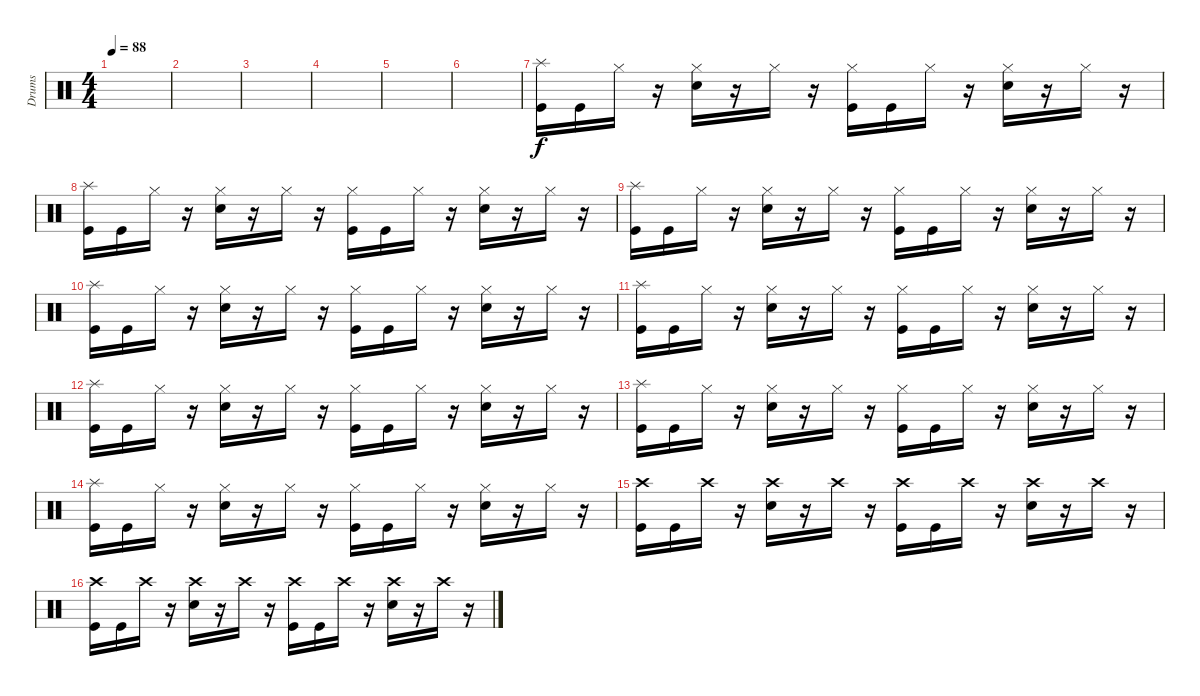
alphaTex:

\track ("Drums" "Drums") {instrument percussion}
\staff {score}
\articulation defaults
\ts (4 4)
\tempo 88
\clef neutral
\ks c
|
|
|
|
|
|
("Splash (hit)" "Kick (hit)").16 "Kick (hit)".16 "Hi-Hat (closed)".16 r.16 ("Hi-Hat (closed)" "Electric Snare (hit)").16 r.16 "Hi-Hat (closed)".16 r.16 ("Hi-Hat (closed)" "Kick (hit)").16 "Kick (hit)".16 "Hi-Hat (closed)".16 r.16 ("Hi-Hat (closed)" "Electric Snare (hit)").16 r.16 "Hi-Hat (closed)".16 r.16 |
("Splash (hit)" "Kick (hit)").16 "Kick (hit)".16 "Hi-Hat (closed)".16 r.16 ("Hi-Hat (closed)" "Electric Snare (hit)").16 r.16 "Hi-Hat (closed)".16 r.16 ("Hi-Hat (closed)" "Kick (hit)").16 "Kick (hit)".16 "Hi-Hat (closed)".16 r.16 ("Hi-Hat (closed)" "Electric Snare (hit)").16 r.16 "Hi-Hat (closed)".16 r.16 |
("Splash (hit)" "Kick (hit)").16 "Kick (hit)".16 "Hi-Hat (closed)".16 r.16 ("Hi-Hat (closed)" "Electric Snare (hit)").16 r.16 "Hi-Hat (closed)".16 r.16 ("Hi-Hat (closed)" "Kick (hit)").16 "Kick (hit)".16 "Hi-Hat (closed)".16 r.16 ("Hi-Hat (closed)" "Electric Snare (hit)").16 r.16 "Hi-Hat (closed)".16 r.16 |
("Splash (hit)" "Kick (hit)").16 "Kick (hit)".16 "Hi-Hat (closed)".16 r.16 ("Hi-Hat (closed)" "Electric Snare (hit)").16 r.16 "Hi-Hat (closed)".16 r.16 ("Hi-Hat (closed)" "Kick (hit)").16 "Kick (hit)".16 "Hi-Hat (closed)".16 r.16 ("Hi-Hat (closed)" "Electric Snare (hit)").16 r.16 "Hi-Hat (closed)".16 r.16 |
("Splash (hit)" "Kick (hit)").16 "Kick (hit)".16 "Hi-Hat (closed)".16 r.16 ("Hi-Hat (closed)" "Electric Snare (hit)").16 r.16 "Hi-Hat (closed)".16 r.16 ("Hi-Hat (closed)" "Kick (hit)").16 "Kick (hit)".16 "Hi-Hat (closed)".16 r.16 ("Hi-Hat (closed)" "Electric Snare (hit)").16 r.16 "Hi-Hat (closed)".16 r.16 |
("Splash (hit)" "Kick (hit)").16 "Kick (hit)".16 "Hi-Hat (closed)".16 r.16 ("Hi-Hat (closed)" "Electric Snare (hit)").16 r.16 "Hi-Hat (closed)".16 r.16 ("Hi-Hat (closed)" "Kick (hit)").16 "Kick (hit)".16 "Hi-Hat (closed)".16 r.16 ("Hi-Hat (closed)" "Electric Snare (hit)").16 r.16 "Hi-Hat (closed)".16 r.16 |
("Splash (hit)" "Kick (hit)").16 "Kick (hit)".16 "Hi-Hat (closed)".16 r.16 ("Hi-Hat (closed)" "Electric Snare (hit)").16 r.16 "Hi-Hat (closed)".16 r.16 ("Hi-Hat (closed)" "Kick (hit)").16 "Kick (hit)".16 "Hi-Hat (closed)".16 r.16 ("Hi-Hat (closed)" "Electric Snare (hit)").16 r.16 "Hi-Hat (closed)".16 r.16 |
("Splash (hit)" "Kick (hit)").16 "Kick (hit)".16 "Hi-Hat (closed)".16 r.16 ("Hi-Hat (closed)" "Electric Snare (hit)").16 r.16 "Hi-Hat (closed)".16 r.16 ("Hi-Hat (closed)" "Kick (hit)").16 "Kick (hit)".16 "Hi-Hat (closed)".16 r.16 ("Hi-Hat (closed)" "Electric Snare (hit)").16 r.16 "Hi-Hat (closed)".16 r.16 |
("Crash high (hit)" "Kick (hit)").16 "Kick (hit)".16 "Crash high (hit)".16 r.16 ("Crash high (hit)" "Electric Snare (hit)").16 r.16 "Crash high (hit)".16 r.16 ("Crash high (hit)" "Kick (hit)").16 "Kick (hit)".16 "Crash high (hit)".16 r.16 ("Crash high (hit)" "Electric Snare (hit)").16 r.16 "Crash high (hit)".16 r.16 |
("Crash high (hit)" "Kick (hit)").16 "Kick (hit)".16 "Crash high (hit)".16 r.16 ("Crash high (hit)" "Electric Snare (hit)").16 r.16 "Crash high (hit)".16 r.16 ("Crash high (hit)" "Kick (hit)").16 "Kick (hit)".16 "Crash high (hit)".16 r.16 ("Crash high (hit)" "Electric Snare (hit)").16 r.16 "Crash high (hit)".16 r.16
